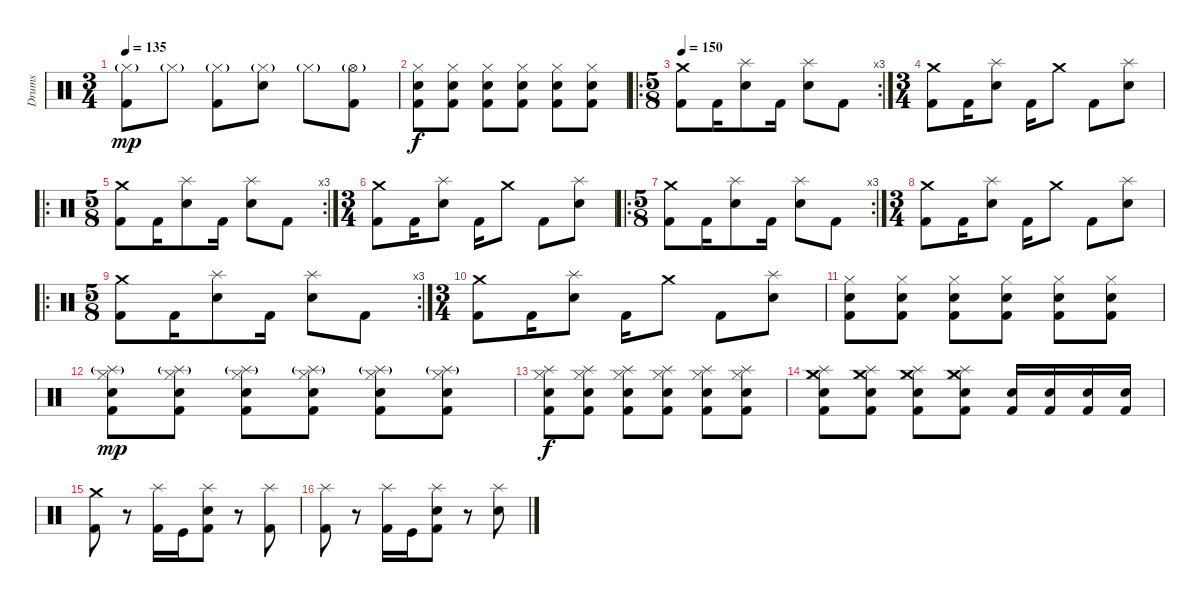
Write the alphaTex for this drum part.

\track ("Drums" "Drums") {instrument percussion}
\staff {score}
\articulation defaults
\ts (3 4)
\tempo 135
\clef neutral
\ks c
("Hi-Hat (closed)"{g} "Kick (hit) 2").8{dy mp} "Hi-Hat (closed)"{g}.8 ("Hi-Hat (closed)"{g} "Kick (hit) 2").8 ("Hi-Hat (closed)"{g} "Electric Snare (hit)").8 "Hi-Hat (closed)"{g}.8 ("Hi-Hat (open)"{g} "Kick (hit) 2").8 |
("Hi-Hat (closed)" "Electric Snare (hit)" "Kick (hit) 2").8{dy f} ("Hi-Hat (closed)" "Electric Snare (hit)" "Kick (hit) 2").8 ("Hi-Hat (closed)" "Electric Snare (hit)" "Kick (hit) 2").8 ("Hi-Hat (closed)" "Electric Snare (hit)" "Kick (hit) 2").8 ("Hi-Hat (closed)" "Electric Snare (hit)" "Kick (hit) 2").8 ("Hi-Hat (closed)" "Electric Snare (hit)" "Kick (hit) 2").8 |
\ro
\rc 3
\ts (5 8)
\tempo 150
("Crash medium (hit)" "Kick (hit) 2").8 "Kick (hit) 2".16 ("Splash (hit)" "Electric Snare (hit)").8 "Kick (hit) 2".16 ("Splash (hit)" "Electric Snare (hit)").8 "Kick (hit) 2".8 |
\ts (3 4)
("Crash medium (hit)" "Kick (hit) 2").8 "Kick (hit) 2".16 ("Splash (hit)" "Electric Snare (hit)").8 "Kick (hit) 2".16 "Crash medium (hit)".8 "Kick (hit) 2".8 ("Splash (hit)" "Electric Snare (hit)").8 |
\ro
\rc 3
\ts (5 8)
("Crash medium (hit)" "Kick (hit) 2").8 "Kick (hit) 2".16 ("Splash (hit)" "Electric Snare (hit)").8 "Kick (hit) 2".16 ("Splash (hit)" "Electric Snare (hit)").8 "Kick (hit) 2".8 |
\ts (3 4)
("Crash medium (hit)" "Kick (hit) 2").8 "Kick (hit) 2".16 ("Splash (hit)" "Electric Snare (hit)").8 "Kick (hit) 2".16 "Crash medium (hit)".8 "Kick (hit) 2".8 ("Splash (hit)" "Electric Snare (hit)").8 |
\ro
\rc 3
\ts (5 8)
("Crash medium (hit)" "Kick (hit) 2").8 "Kick (hit) 2".16 ("Splash (hit)" "Electric Snare (hit)").8 "Kick (hit) 2".16 ("Splash (hit)" "Electric Snare (hit)").8 "Kick (hit) 2".8 |
\ts (3 4)
("Crash medium (hit)" "Kick (hit) 2").8 "Kick (hit) 2".16 ("Splash (hit)" "Electric Snare (hit)").8 "Kick (hit) 2".16 "Crash medium (hit)".8 "Kick (hit) 2".8 ("Splash (hit)" "Electric Snare (hit)").8 |
\ro
\rc 3
\ts (5 8)
("Crash medium (hit)" "Kick (hit) 2").8 "Kick (hit) 2".16 ("Splash (hit)" "Electric Snare (hit)").8 "Kick (hit) 2".16 ("Splash (hit)" "Electric Snare (hit)").8 "Kick (hit) 2".8 |
\ts (3 4)
("Crash medium (hit)" "Kick (hit) 2").8 "Kick (hit) 2".16 ("Splash (hit)" "Electric Snare (hit)").8 "Kick (hit) 2".16 "Crash medium (hit)".8 "Kick (hit) 2".8 ("Splash (hit)" "Electric Snare (hit)").8 |
("Hi-Hat (closed)" "Electric Snare (hit)" "Kick (hit) 2").8 ("Hi-Hat (closed)" "Electric Snare (hit)" "Kick (hit) 2").8 ("Hi-Hat (closed)" "Electric Snare (hit)" "Kick (hit) 2").8 ("Hi-Hat (closed)" "Electric Snare (hit)" "Kick (hit) 2").8 ("Hi-Hat (closed)" "Electric Snare (hit)" "Kick (hit) 2").8 ("Hi-Hat (closed)" "Electric Snare (hit)" "Kick (hit) 2").8 |
("Hi-Hat (closed)" "Splash (hit)"{g} "Electric Snare (hit)" "Kick (hit) 2").8{dy mp} ("Hi-Hat (closed)" "Splash (hit)"{g} "Electric Snare (hit)" "Kick (hit) 2").8 ("Hi-Hat (closed)" "Splash (hit)"{g} "Electric Snare (hit)" "Kick (hit) 2").8 ("Hi-Hat (closed)" "Splash (hit)"{g} "Electric Snare (hit)" "Kick (hit) 2").8 ("Hi-Hat (closed)" "Splash (hit)"{g} "Electric Snare (hit)" "Kick (hit) 2").8 ("Hi-Hat (closed)" "Splash (hit)"{g} "Electric Snare (hit)" "Kick (hit) 2").8 |
("Hi-Hat (closed)" "Splash (hit)" "Electric Snare (hit)" "Kick (hit) 2").8{dy f} ("Hi-Hat (closed)" "Splash (hit)" "Electric Snare (hit)" "Kick (hit) 2").8 ("Hi-Hat (closed)" "Splash (hit)" "Electric Snare (hit)" "Kick (hit) 2").8 ("Hi-Hat (closed)" "Splash (hit)" "Electric Snare (hit)" "Kick (hit) 2").8 ("Hi-Hat (closed)" "Splash (hit)" "Electric Snare (hit)" "Kick (hit) 2").8 ("Hi-Hat (closed)" "Splash (hit)" "Electric Snare (hit)" "Kick (hit) 2").8 |
("Hi-Hat (closed)" "Splash (hit)" "Crash medium (hit)" "Electric Snare (hit)" "Kick (hit) 2").8 ("Hi-Hat (closed)" "Splash (hit)" "Crash medium (hit)" "Electric Snare (hit)" "Kick (hit) 2").8 ("Hi-Hat (closed)" "Splash (hit)" "Crash medium (hit)" "Electric Snare (hit)" "Kick (hit) 2").8 ("Hi-Hat (closed)" "Splash (hit)" "Crash medium (hit)" "Electric Snare (hit)" "Kick (hit) 2").8 ("Electric Snare (hit)" "Kick (hit) 2").16 ("Electric Snare (hit)" "Kick (hit) 2").16 ("Electric Snare (hit)" "Kick (hit) 2").16 ("Electric Snare (hit)" "Kick (hit) 2").16 |
("Crash medium (hit)" "Kick (hit) 2").8 r.8 ("Splash (hit)" "Kick (hit) 2").16 "Kick (hit)".16 ("Splash (hit)" "Electric Snare (hit)" "Kick (hit) 2").8 r.8 ("Splash (hit)" "Kick (hit) 2").8 |
("Splash (hit)" "Kick (hit) 2").8 r.8 ("Splash (hit)" "Kick (hit) 2").16 "Kick (hit)".16 ("Splash (hit)" "Electric Snare (hit)" "Kick (hit) 2").8 r.8 ("Splash (hit)" "Electric Snare (hit)").8
